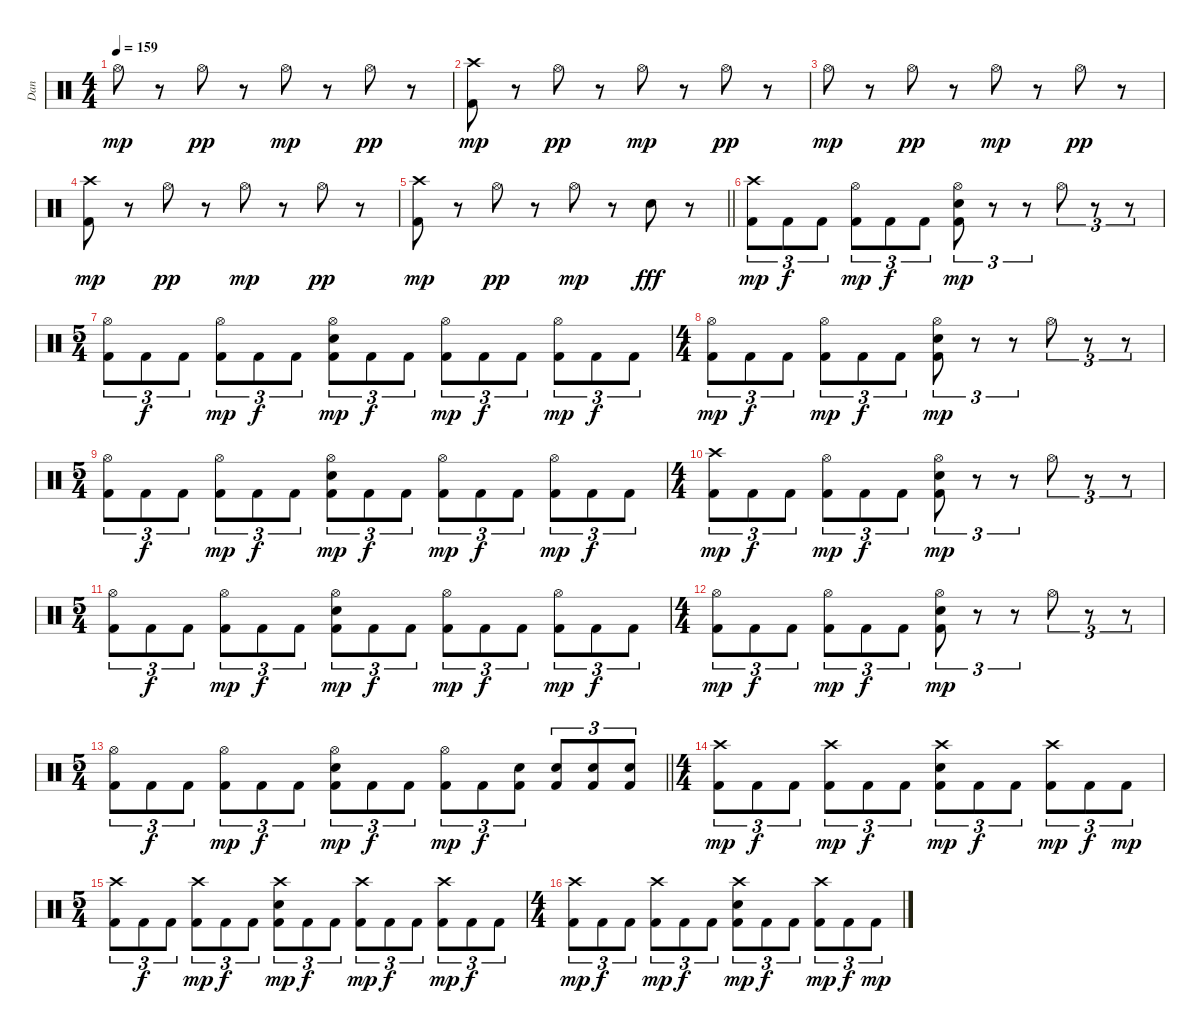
\track ("Dan" "Dan") {instrument percussion}
\staff {score}
\articulation defaults
\ts (4 4)
\tempo 159
\clef neutral
\ks c "Hi-Hat (open)".8{dy mp}
r.8 "Hi-Hat (open)".8{dy pp} r.8 "Hi-Hat (open)".8{dy mp} r.8 "Hi-Hat (open)".8{dy pp} r.8 |
("Crash high (hit)" "Kick (hit) 2").8{dy mp} r.8 "Hi-Hat (open)".8{dy pp} r.8 "Hi-Hat (open)".8{dy mp} r.8 "Hi-Hat (open)".8{dy pp} r.8 |
"Hi-Hat (open)".8{dy mp} r.8 "Hi-Hat (open)".8{dy pp} r.8 "Hi-Hat (open)".8{dy mp} r.8 "Hi-Hat (open)".8{dy pp} r.8 |
("Crash high (hit)" "Kick (hit) 2").8{dy mp} r.8 "Hi-Hat (open)".8{dy pp} r.8 "Hi-Hat (open)".8{dy mp} r.8 "Hi-Hat (open)".8{dy pp} r.8 |
\barLineRight lightlight
("Crash high (hit)" "Kick (hit) 2").8{dy mp} r.8 "Hi-Hat (open)".8{dy pp} r.8 "Hi-Hat (open)".8{dy mp} r.8 "Snare (hit) 2".8{dy fff} r.8 |
("Crash high (hit)" "Kick (hit) 2").8{tu (3 2) dy mp} "Kick (hit) 2".8{tu (3 2) dy f} "Kick (hit) 2".8{tu (3 2)} ("Hi-Hat (open)" "Kick (hit) 2").8{tu (3 2) dy mp} "Kick (hit) 2".8{tu (3 2) dy f} "Kick (hit) 2".8{tu (3 2)} ("Hi-Hat (open)" "Snare (hit) 2" "Kick (hit) 2").8{tu (3 2) dy mp} r.8{tu (3 2)} r.8{tu (3 2)} "Hi-Hat (open)".8{tu (3 2)} r.8{tu (3 2)} r.8{tu (3 2)} |
\ts (5 4)
("Hi-Hat (open)" "Kick (hit) 2").8{tu (3 2)} "Kick (hit) 2".8{tu (3 2) dy f} "Kick (hit) 2".8{tu (3 2)} ("Hi-Hat (open)" "Kick (hit) 2").8{tu (3 2) dy mp} "Kick (hit) 2".8{tu (3 2) dy f} "Kick (hit) 2".8{tu (3 2)} ("Hi-Hat (open)" "Snare (hit) 2" "Kick (hit) 2").8{tu (3 2) dy mp} "Kick (hit) 2".8{tu (3 2) dy f} "Kick (hit) 2".8{tu (3 2)} ("Hi-Hat (open)" "Kick (hit) 2").8{tu (3 2) dy mp} "Kick (hit) 2".8{tu (3 2) dy f} "Kick (hit) 2".8{tu (3 2)} ("Hi-Hat (open)" "Kick (hit) 2").8{tu (3 2) dy mp} "Kick (hit) 2".8{tu (3 2) dy f} "Kick (hit) 2".8{tu (3 2)} |
\ts (4 4)
("Hi-Hat (open)" "Kick (hit) 2").8{tu (3 2) dy mp} "Kick (hit) 2".8{tu (3 2) dy f} "Kick (hit) 2".8{tu (3 2)} ("Hi-Hat (open)" "Kick (hit) 2").8{tu (3 2) dy mp} "Kick (hit) 2".8{tu (3 2) dy f} "Kick (hit) 2".8{tu (3 2)} ("Hi-Hat (open)" "Snare (hit) 2" "Kick (hit) 2").8{tu (3 2) dy mp} r.8{tu (3 2)} r.8{tu (3 2)} "Hi-Hat (open)".8{tu (3 2)} r.8{tu (3 2)} r.8{tu (3 2)} |
\ts (5 4)
("Hi-Hat (open)" "Kick (hit) 2").8{tu (3 2)} "Kick (hit) 2".8{tu (3 2) dy f} "Kick (hit) 2".8{tu (3 2)} ("Hi-Hat (open)" "Kick (hit) 2").8{tu (3 2) dy mp} "Kick (hit) 2".8{tu (3 2) dy f} "Kick (hit) 2".8{tu (3 2)} ("Hi-Hat (open)" "Snare (hit) 2" "Kick (hit) 2").8{tu (3 2) dy mp} "Kick (hit) 2".8{tu (3 2) dy f} "Kick (hit) 2".8{tu (3 2)} ("Hi-Hat (open)" "Kick (hit) 2").8{tu (3 2) dy mp} "Kick (hit) 2".8{tu (3 2) dy f} "Kick (hit) 2".8{tu (3 2)} ("Hi-Hat (open)" "Kick (hit) 2").8{tu (3 2) dy mp} "Kick (hit) 2".8{tu (3 2) dy f} "Kick (hit) 2".8{tu (3 2)} |
\ts (4 4)
("Crash high (hit)" "Kick (hit) 2").8{tu (3 2) dy mp} "Kick (hit) 2".8{tu (3 2) dy f} "Kick (hit) 2".8{tu (3 2)} ("Hi-Hat (open)" "Kick (hit) 2").8{tu (3 2) dy mp} "Kick (hit) 2".8{tu (3 2) dy f} "Kick (hit) 2".8{tu (3 2)} ("Hi-Hat (open)" "Snare (hit) 2" "Kick (hit) 2").8{tu (3 2) dy mp} r.8{tu (3 2)} r.8{tu (3 2)} "Hi-Hat (open)".8{tu (3 2)} r.8{tu (3 2)} r.8{tu (3 2)} |
\ts (5 4)
("Hi-Hat (open)" "Kick (hit) 2").8{tu (3 2)} "Kick (hit) 2".8{tu (3 2) dy f} "Kick (hit) 2".8{tu (3 2)} ("Hi-Hat (open)" "Kick (hit) 2").8{tu (3 2) dy mp} "Kick (hit) 2".8{tu (3 2) dy f} "Kick (hit) 2".8{tu (3 2)} ("Hi-Hat (open)" "Snare (hit) 2" "Kick (hit) 2").8{tu (3 2) dy mp} "Kick (hit) 2".8{tu (3 2) dy f} "Kick (hit) 2".8{tu (3 2)} ("Hi-Hat (open)" "Kick (hit) 2").8{tu (3 2) dy mp} "Kick (hit) 2".8{tu (3 2) dy f} "Kick (hit) 2".8{tu (3 2)} ("Hi-Hat (open)" "Kick (hit) 2").8{tu (3 2) dy mp} "Kick (hit) 2".8{tu (3 2) dy f} "Kick (hit) 2".8{tu (3 2)} |
\ts (4 4)
("Hi-Hat (open)" "Kick (hit) 2").8{tu (3 2) dy mp} "Kick (hit) 2".8{tu (3 2) dy f} "Kick (hit) 2".8{tu (3 2)} ("Hi-Hat (open)" "Kick (hit) 2").8{tu (3 2) dy mp} "Kick (hit) 2".8{tu (3 2) dy f} "Kick (hit) 2".8{tu (3 2)} ("Hi-Hat (open)" "Snare (hit) 2" "Kick (hit) 2").8{tu (3 2) dy mp} r.8{tu (3 2)} r.8{tu (3 2)} "Hi-Hat (open)".8{tu (3 2)} r.8{tu (3 2)} r.8{tu (3 2)} |
\ts (5 4)
\barLineRight lightlight
("Hi-Hat (open)" "Kick (hit) 2").8{tu (3 2)} "Kick (hit) 2".8{tu (3 2) dy f} "Kick (hit) 2".8{tu (3 2)} ("Hi-Hat (open)" "Kick (hit) 2").8{tu (3 2) dy mp} "Kick (hit) 2".8{tu (3 2) dy f} "Kick (hit) 2".8{tu (3 2)} ("Hi-Hat (open)" "Snare (hit) 2" "Kick (hit) 2").8{tu (3 2) dy mp} "Kick (hit) 2".8{tu (3 2) dy f} "Kick (hit) 2".8{tu (3 2)} ("Hi-Hat (open)" "Kick (hit) 2").8{tu (3 2) dy mp} "Kick (hit) 2".8{tu (3 2) dy f} ("Snare (hit) 2" "Kick (hit) 2").8{tu (3 2)} ("Snare (hit) 2" "Kick (hit) 2").8{tu (3 2)} ("Snare (hit) 2" "Kick (hit) 2").8{tu (3 2)} ("Snare (hit) 2" "Kick (hit) 2").8{tu (3 2)} |
\ts (4 4)
("Crash high (hit)" "Kick (hit) 2").8{tu (3 2) dy mp} "Kick (hit) 2".8{tu (3 2) dy f} "Kick (hit) 2".8{tu (3 2)} ("Crash high (hit)" "Kick (hit) 2").8{tu (3 2) dy mp} "Kick (hit) 2".8{tu (3 2) dy f} "Kick (hit) 2".8{tu (3 2)} ("Crash high (hit)" "Snare (hit) 2" "Kick (hit) 2").8{tu (3 2) dy mp} "Kick (hit) 2".8{tu (3 2) dy f} "Kick (hit) 2".8{tu (3 2)} ("Crash high (hit)" "Kick (hit) 2").8{tu (3 2) dy mp} "Kick (hit) 2".8{tu (3 2) dy f} "Kick (hit) 2".8{tu (3 2) dy mp} |
\ts (5 4)
("Crash high (hit)" "Kick (hit) 2").8{tu (3 2)} "Kick (hit) 2".8{tu (3 2) dy f} "Kick (hit) 2".8{tu (3 2)} ("Crash high (hit)" "Kick (hit) 2").8{tu (3 2) dy mp} "Kick (hit) 2".8{tu (3 2) dy f} "Kick (hit) 2".8{tu (3 2)} ("Crash high (hit)" "Snare (hit) 2" "Kick (hit) 2").8{tu (3 2) dy mp} "Kick (hit) 2".8{tu (3 2) dy f} "Kick (hit) 2".8{tu (3 2)} ("Crash high (hit)" "Kick (hit) 2").8{tu (3 2) dy mp} "Kick (hit) 2".8{tu (3 2) dy f} "Kick (hit) 2".8{tu (3 2)} ("Crash high (hit)" "Kick (hit) 2").8{tu (3 2) dy mp} "Kick (hit) 2".8{tu (3 2) dy f} "Kick (hit) 2".8{tu (3 2)} |
\ts (4 4)
("Crash high (hit)" "Kick (hit) 2").8{tu (3 2) dy mp} "Kick (hit) 2".8{tu (3 2) dy f} "Kick (hit) 2".8{tu (3 2)} ("Crash high (hit)" "Kick (hit) 2").8{tu (3 2) dy mp} "Kick (hit) 2".8{tu (3 2) dy f} "Kick (hit) 2".8{tu (3 2)} ("Crash high (hit)" "Snare (hit) 2" "Kick (hit) 2").8{tu (3 2) dy mp} "Kick (hit) 2".8{tu (3 2) dy f} "Kick (hit) 2".8{tu (3 2)} ("Crash high (hit)" "Kick (hit) 2").8{tu (3 2) dy mp} "Kick (hit) 2".8{tu (3 2) dy f} "Kick (hit) 2".8{tu (3 2) dy mp}
